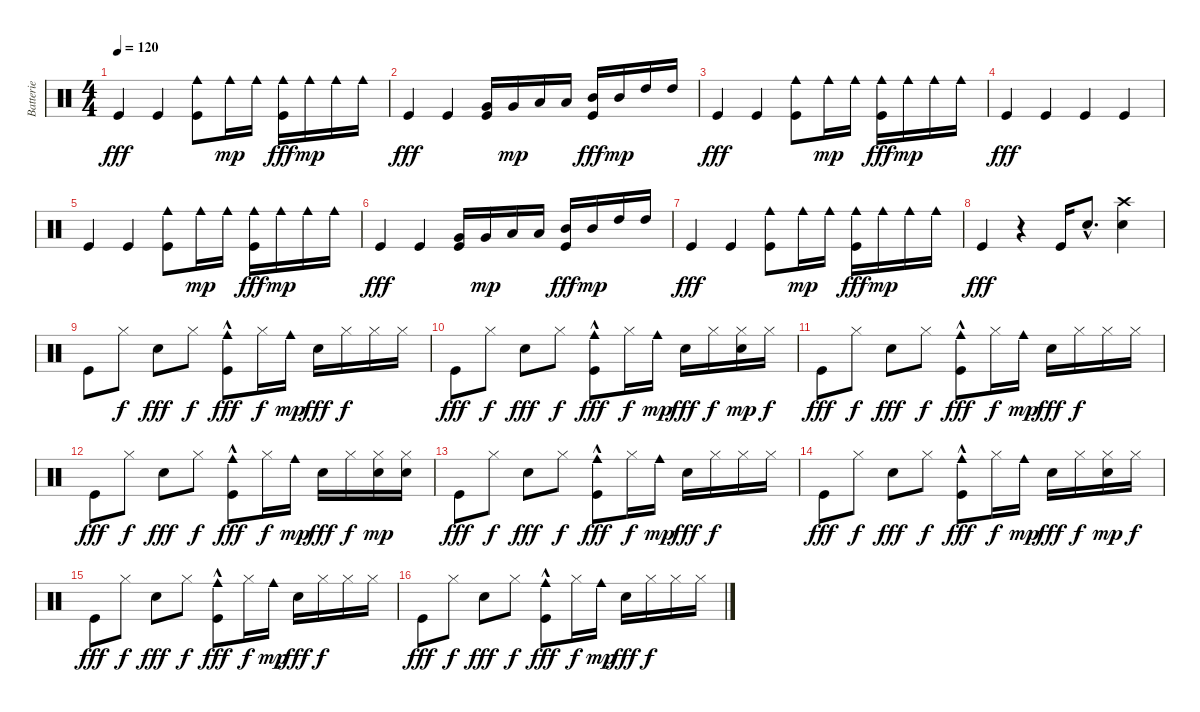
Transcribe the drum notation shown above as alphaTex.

\track ("Batterie" "Batterie") {instrument percussion}
\staff {score}
\articulation defaults
\ts (4 4)
\tempo 120
\clef neutral
\ks c "Kick (hit)".4{dy fff} "Kick (hit)".4
("Cowbell medium (hit)" "Kick (hit)").8 "Cowbell medium (hit)".16{dy mp} "Cowbell medium (hit)".16 ("Cowbell medium (hit)" "Kick (hit)").16{dy fff} "Cowbell medium (hit)".16{dy mp} "Cowbell medium (hit)".16 "Cowbell medium (hit)".16 |
"Kick (hit)".4{dy fff} "Kick (hit)".4 ("Very Low Tom (hit)" "Kick (hit)").16 "Very Low Tom (hit)".16{dy mp} "Low Tom (hit)".16 "Low Tom (hit)".16 ("Mid Tom (hit)" "Kick (hit)").16{dy fff} "Mid Tom (hit)".16{dy mp} "High Tom (hit)".16 "High Tom (hit)".16 |
"Kick (hit)".4{dy fff} "Kick (hit)".4 ("Cowbell medium (hit)" "Kick (hit)").8 "Cowbell medium (hit)".16{dy mp} "Cowbell medium (hit)".16 ("Cowbell medium (hit)" "Kick (hit)").16{dy fff} "Cowbell medium (hit)".16{dy mp} "Cowbell medium (hit)".16 "Cowbell medium (hit)".16 |
"Kick (hit)".4{dy fff} "Kick (hit)".4 "Kick (hit)".4 "Kick (hit)".4 |
"Kick (hit)".4 "Kick (hit)".4 ("Cowbell medium (hit)" "Kick (hit)").8 "Cowbell medium (hit)".16{dy mp} "Cowbell medium (hit)".16 ("Cowbell medium (hit)" "Kick (hit)").16{dy fff} "Cowbell medium (hit)".16{dy mp} "Cowbell medium (hit)".16 "Cowbell medium (hit)".16 |
"Kick (hit)".4{dy fff} "Kick (hit)".4 ("Very Low Tom (hit)" "Kick (hit)").16 "Very Low Tom (hit)".16{dy mp} "Low Tom (hit)".16 "Low Tom (hit)".16 ("Mid Tom (hit)" "Kick (hit)").16{dy fff} "Mid Tom (hit)".16{dy mp} "High Tom (hit)".16 "High Tom (hit)".16 |
"Kick (hit)".4{dy fff} "Kick (hit)".4 ("Cowbell medium (hit)" "Kick (hit)").8 "Cowbell medium (hit)".16{dy mp} "Cowbell medium (hit)".16 ("Cowbell medium (hit)" "Kick (hit)").16{dy fff} "Cowbell medium (hit)".16{dy mp} "Cowbell medium (hit)".16 "Cowbell medium (hit)".16 |
"Kick (hit)".4{dy fff} r.4 "Kick (hit)".16 "Snare (hit) 2"{hac}.8{d} ("Crash high (hit)" "Snare (hit) 2").4 |
"Kick (hit)".8 "Hi-Hat (closed)".8{dy f} "Snare (hit) 2".8{dy fff} "Hi-Hat (closed)".8{dy f} ("Cowbell medium (hit)"{hac} "Kick (hit)").8{dy fff} "Hi-Hat (closed)".16{dy f} "Cowbell medium (hit)".16{dy mp} "Snare (hit) 2".16{dy fff} "Hi-Hat (closed)".16{dy f} "Hi-Hat (closed)".16 "Hi-Hat (closed)".16 |
"Kick (hit)".8{dy fff} "Hi-Hat (closed)".8{dy f} "Snare (hit) 2".8{dy fff} "Hi-Hat (closed)".8{dy f} ("Cowbell medium (hit)"{hac} "Kick (hit)").8{dy fff} "Hi-Hat (closed)".16{dy f} "Cowbell medium (hit)".16{dy mp} "Snare (hit) 2".16{dy fff} "Hi-Hat (closed)".16{dy f} ("Hand Clap (hit)" "Hi-Hat (closed)").16{dy mp} "Hi-Hat (closed)".16{dy f} |
"Kick (hit)".8{dy fff} "Hi-Hat (closed)".8{dy f} "Snare (hit) 2".8{dy fff} "Hi-Hat (closed)".8{dy f} ("Cowbell medium (hit)"{hac} "Kick (hit)").8{dy fff} "Hi-Hat (closed)".16{dy f} "Cowbell medium (hit)".16{dy mp} "Snare (hit) 2".16{dy fff} "Hi-Hat (closed)".16{dy f} "Hi-Hat (closed)".16 "Hi-Hat (closed)".16 |
"Kick (hit)".8{dy fff} "Hi-Hat (closed)".8{dy f} "Snare (hit) 2".8{dy fff} "Hi-Hat (closed)".8{dy f} ("Cowbell medium (hit)"{hac} "Kick (hit)").8{dy fff} "Hi-Hat (closed)".16{dy f} "Cowbell medium (hit)".16{dy mp} "Snare (hit) 2".16{dy fff} "Hi-Hat (closed)".16{dy f} ("Hand Clap (hit)" "Hi-Hat (closed)").16{dy mp} ("Hand Clap (hit)" "Hi-Hat (closed)").16 |
"Kick (hit)".8{dy fff} "Hi-Hat (closed)".8{dy f} "Snare (hit) 2".8{dy fff} "Hi-Hat (closed)".8{dy f} ("Cowbell medium (hit)"{hac} "Kick (hit)").8{dy fff} "Hi-Hat (closed)".16{dy f} "Cowbell medium (hit)".16{dy mp} "Snare (hit) 2".16{dy fff} "Hi-Hat (closed)".16{dy f} "Hi-Hat (closed)".16 "Hi-Hat (closed)".16 |
"Kick (hit)".8{dy fff} "Hi-Hat (closed)".8{dy f} "Snare (hit) 2".8{dy fff} "Hi-Hat (closed)".8{dy f} ("Cowbell medium (hit)"{hac} "Kick (hit)").8{dy fff} "Hi-Hat (closed)".16{dy f} "Cowbell medium (hit)".16{dy mp} "Snare (hit) 2".16{dy fff} "Hi-Hat (closed)".16{dy f} ("Hand Clap (hit)" "Hi-Hat (closed)").16{dy mp} "Hi-Hat (closed)".16{dy f} |
"Kick (hit)".8{dy fff} "Hi-Hat (closed)".8{dy f} "Snare (hit) 2".8{dy fff} "Hi-Hat (closed)".8{dy f} ("Cowbell medium (hit)"{hac} "Kick (hit)").8{dy fff} "Hi-Hat (closed)".16{dy f} "Cowbell medium (hit)".16{dy mp} "Snare (hit) 2".16{dy fff} "Hi-Hat (closed)".16{dy f} "Hi-Hat (closed)".16 "Hi-Hat (closed)".16 |
"Kick (hit)".8{dy fff} "Hi-Hat (closed)".8{dy f} "Snare (hit) 2".8{dy fff} "Hi-Hat (closed)".8{dy f} ("Cowbell medium (hit)"{hac} "Kick (hit)").8{dy fff} "Hi-Hat (closed)".16{dy f} "Cowbell medium (hit)".16{dy mp} "Snare (hit) 2".16{dy fff} "Hi-Hat (closed)".16{dy f} "Hi-Hat (closed)".16 "Hi-Hat (closed)".16
